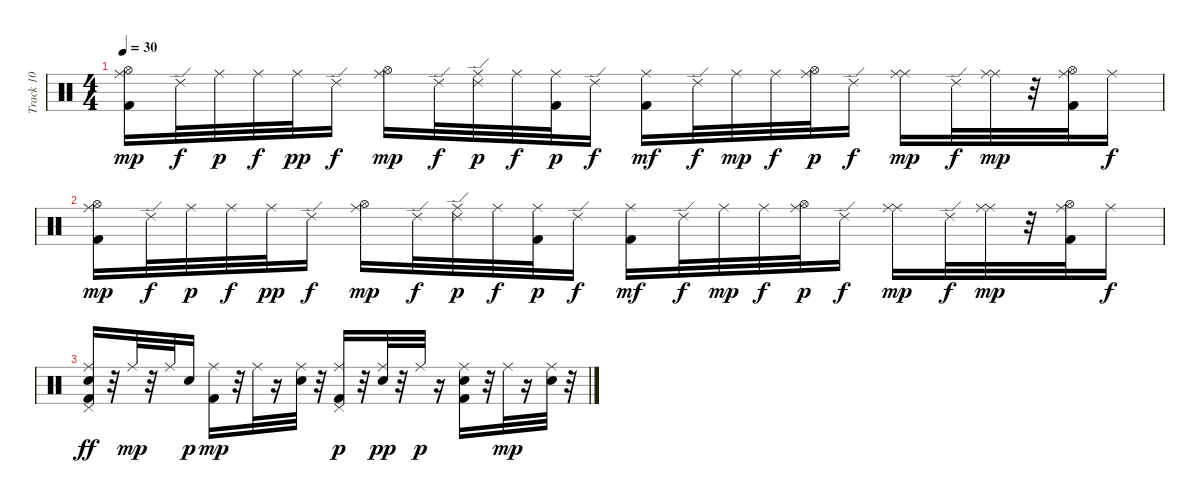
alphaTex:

\track ("Track 10" "Track 10") {instrument percussion}
\staff {score}
\articulation defaults
\ts (4 4)
\tempo 30
\clef neutral
\ks c
("Kick (hit) 2" "Hi-Hat (open)" "Ride (middle)").16{dy mp} "Ride (edge) 2".32{dy f} "Ride (middle)".32{dy p} "Ride (middle)".32{dy f} "Ride (middle)".32{dy pp} "Ride (edge) 2".16{dy f} ("Ride (middle)" "Hi-Hat (open)").16{dy mp} "Ride (edge) 2".32{dy f} ("Ride (middle)" "Ride (edge) 2").32{dy p} "Ride (middle)".32{dy f} ("Kick (hit) 2" "Ride (middle)").32{dy p} "Ride (edge) 2".16{dy f} ("Ride (middle)" "Kick (hit) 2").16{dy mf} "Ride (edge) 2".32{dy f} "Ride (middle)".32{dy mp} "Ride (middle)".32{dy f} ("Ride (middle)" "Hi-Hat (open)").32{dy p} "Ride (edge) 2".16{dy f} ("Ride (middle)" "Ride (middle)").16{dy mp} "Ride (edge) 2".32{dy f} ("Ride (middle)" "Ride (middle)").32{dy mp} r.32 ("Kick (hit) 2" "Ride (middle)" "Hi-Hat (open)").32 "Ride (middle)".16{dy f} |
("Kick (hit) 2" "Hi-Hat (open)" "Ride (middle)").16{dy mp} "Ride (edge) 2".32{dy f} "Ride (middle)".32{dy p} "Ride (middle)".32{dy f} "Ride (middle)".32{dy pp} "Ride (edge) 2".16{dy f} ("Ride (middle)" "Hi-Hat (open)").16{dy mp} "Ride (edge) 2".32{dy f} ("Ride (middle)" "Ride (edge) 2").32{dy p} "Ride (middle)".32{dy f} ("Kick (hit) 2" "Ride (middle)").32{dy p} "Ride (edge) 2".16{dy f} ("Ride (middle)" "Kick (hit) 2").16{dy mf} "Ride (edge) 2".32{dy f} "Ride (middle)".32{dy mp} "Ride (middle)".32{dy f} ("Ride (middle)" "Hi-Hat (open)").32{dy p} "Ride (edge) 2".16{dy f} ("Ride (middle)" "Ride (middle)").16{dy mp} "Ride (edge) 2".32{dy f} ("Ride (middle)" "Ride (middle)").32{dy mp} r.32 ("Kick (hit) 2" "Ride (middle)" "Hi-Hat (open)").32 "Ride (middle)".16{dy f} |
("Ride (middle)" "Kick (hit) 2" "Electric Snare (hit)" "Pedal Hi-Hat (hit)").16{dy ff} r.32 "Ride (middle)".32{dy mp} r.32 "Ride (middle)".32 "Electric Snare (hit)".16{dy p} ("Kick (hit) 2" "Ride (middle)").16{dy mp} r.32 "Ride (middle)".32 r.16 ("Ride (middle)" "Electric Snare (hit)").32 r.32 ("Pedal Hi-Hat (hit)" "Kick (hit) 2" "Ride (middle)").16{dy p} r.32 ("Electric Snare (hit)" "Ride (middle)").32{dy pp} r.32 "Ride (middle)".32{dy p} r.16 ("Kick (hit) 2" "Ride (middle)" "Electric Snare (hit)").16 r.32 "Ride (middle)".32{dy mp} r.16 ("Ride (middle)" "Electric Snare (hit)").32 r.32
